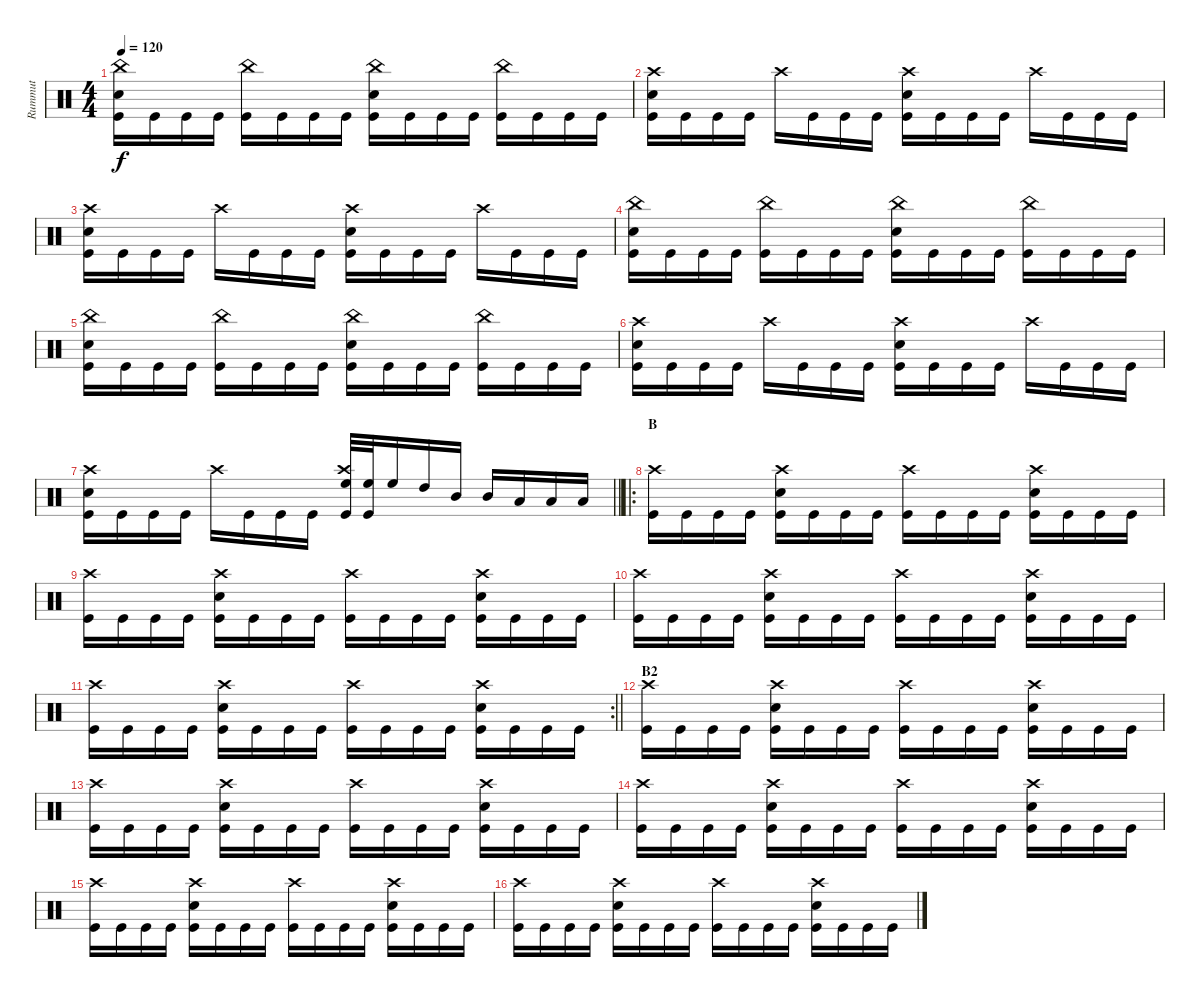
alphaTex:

\track ("Rummut" "Rummut") {instrument percussion}
\staff {score}
\articulation defaults
\ts (4 4)
\tempo 120
\clef neutral
\ks c
("Kick (hit)" "Snare (hit) 2" "China (hit)").16{dy f} "Kick (hit)".16 "Kick (hit)".16 "Kick (hit)".16 ("Kick (hit)" "China (hit)").16 "Kick (hit)".16 "Kick (hit)".16 "Kick (hit)".16 ("Kick (hit)" "Snare (hit) 2" "China (hit)").16 "Kick (hit)".16 "Kick (hit)".16 "Kick (hit)".16 ("Kick (hit)" "China (hit)").16 "Kick (hit)".16 "Kick (hit)".16 "Kick (hit)".16 |
("Crash high (hit)" "Snare (hit) 2" "Kick (hit)").16 "Kick (hit)".16 "Kick (hit)".16 "Kick (hit)".16 "Crash high (hit)".16 "Kick (hit)".16 "Kick (hit)".16 "Kick (hit)".16 ("Crash high (hit)" "Snare (hit) 2" "Kick (hit)").16 "Kick (hit)".16 "Kick (hit)".16 "Kick (hit)".16 "Crash high (hit)".16 "Kick (hit)".16 "Kick (hit)".16 "Kick (hit)".16 |
("Crash high (hit)" "Snare (hit) 2" "Kick (hit)").16 "Kick (hit)".16 "Kick (hit)".16 "Kick (hit)".16 "Crash high (hit)".16 "Kick (hit)".16 "Kick (hit)".16 "Kick (hit)".16 ("Crash high (hit)" "Snare (hit) 2" "Kick (hit)").16 "Kick (hit)".16 "Kick (hit)".16 "Kick (hit)".16 "Crash high (hit)".16 "Kick (hit)".16 "Kick (hit)".16 "Kick (hit)".16 |
("Kick (hit)" "Snare (hit) 2" "China (hit)").16 "Kick (hit)".16 "Kick (hit)".16 "Kick (hit)".16 ("Kick (hit)" "China (hit)").16 "Kick (hit)".16 "Kick (hit)".16 "Kick (hit)".16 ("Kick (hit)" "Snare (hit) 2" "China (hit)").16 "Kick (hit)".16 "Kick (hit)".16 "Kick (hit)".16 ("Kick (hit)" "China (hit)").16 "Kick (hit)".16 "Kick (hit)".16 "Kick (hit)".16 |
("Kick (hit)" "Snare (hit) 2" "China (hit)").16 "Kick (hit)".16 "Kick (hit)".16 "Kick (hit)".16 ("Kick (hit)" "China (hit)").16 "Kick (hit)".16 "Kick (hit)".16 "Kick (hit)".16 ("Kick (hit)" "Snare (hit) 2" "China (hit)").16 "Kick (hit)".16 "Kick (hit)".16 "Kick (hit)".16 ("Kick (hit)" "China (hit)").16 "Kick (hit)".16 "Kick (hit)".16 "Kick (hit)".16 |
("Crash high (hit)" "Snare (hit) 2" "Kick (hit)").16 "Kick (hit)".16 "Kick (hit)".16 "Kick (hit)".16 "Crash high (hit)".16 "Kick (hit)".16 "Kick (hit)".16 "Kick (hit)".16 ("Crash high (hit)" "Snare (hit) 2" "Kick (hit)").16 "Kick (hit)".16 "Kick (hit)".16 "Kick (hit)".16 "Crash high (hit)".16 "Kick (hit)".16 "Kick (hit)".16 "Kick (hit)".16 |
\barLineRight lightlight
("Crash high (hit)" "Snare (hit) 2" "Kick (hit)").16 "Kick (hit)".16 "Kick (hit)".16 "Kick (hit)".16 "Crash high (hit)".16 "Kick (hit)".16 "Kick (hit)".16 "Kick (hit)".16 ("Crash high (hit)" "High Floor Tom (hit)" "Kick (hit)").32 ("High Floor Tom (hit)" "Kick (hit)").32 "High Floor Tom (hit)".16 "High Tom (hit)".16 "Mid Tom (hit)".16 "Mid Tom (hit)".16 "Low Tom (hit)".16 "Low Floor Tom (hit)".16 "Low Floor Tom (hit)".16 |
\ro
\section ("" "B")
("Crash high (hit)" "Kick (hit)").16 "Kick (hit)".16 "Kick (hit)".16 "Kick (hit)".16 ("Crash high (hit)" "Snare (hit) 2" "Kick (hit)").16 "Kick (hit)".16 "Kick (hit)".16 "Kick (hit)".16 ("Crash high (hit)" "Kick (hit)").16 "Kick (hit)".16 "Kick (hit)".16 "Kick (hit)".16 ("Crash high (hit)" "Snare (hit) 2" "Kick (hit)").16 "Kick (hit)".16 "Kick (hit)".16 "Kick (hit)".16 |
("Crash high (hit)" "Kick (hit)").16 "Kick (hit)".16 "Kick (hit)".16 "Kick (hit)".16 ("Crash high (hit)" "Snare (hit) 2" "Kick (hit)").16 "Kick (hit)".16 "Kick (hit)".16 "Kick (hit)".16 ("Crash high (hit)" "Kick (hit)").16 "Kick (hit)".16 "Kick (hit)".16 "Kick (hit)".16 ("Crash high (hit)" "Snare (hit) 2" "Kick (hit)").16 "Kick (hit)".16 "Kick (hit)".16 "Kick (hit)".16 |
("Crash high (hit)" "Kick (hit)").16 "Kick (hit)".16 "Kick (hit)".16 "Kick (hit)".16 ("Crash high (hit)" "Snare (hit) 2" "Kick (hit)").16 "Kick (hit)".16 "Kick (hit)".16 "Kick (hit)".16 ("Crash high (hit)" "Kick (hit)").16 "Kick (hit)".16 "Kick (hit)".16 "Kick (hit)".16 ("Crash high (hit)" "Snare (hit) 2" "Kick (hit)").16 "Kick (hit)".16 "Kick (hit)".16 "Kick (hit)".16 |
\rc 2
\barLineRight lightlight
("Crash high (hit)" "Kick (hit)").16 "Kick (hit)".16 "Kick (hit)".16 "Kick (hit)".16 ("Crash high (hit)" "Snare (hit) 2" "Kick (hit)").16 "Kick (hit)".16 "Kick (hit)".16 "Kick (hit)".16 ("Crash high (hit)" "Kick (hit)").16 "Kick (hit)".16 "Kick (hit)".16 "Kick (hit)".16 ("Crash high (hit)" "Snare (hit) 2" "Kick (hit)").16 "Kick (hit)".16 "Kick (hit)".16 "Kick (hit)".16 |
\section ("" "B2")
("Crash high (hit)" "Kick (hit)").16 "Kick (hit)".16 "Kick (hit)".16 "Kick (hit)".16 ("Crash high (hit)" "Snare (hit) 2" "Kick (hit)").16 "Kick (hit)".16 "Kick (hit)".16 "Kick (hit)".16 ("Crash high (hit)" "Kick (hit)").16 "Kick (hit)".16 "Kick (hit)".16 "Kick (hit)".16 ("Crash high (hit)" "Snare (hit) 2" "Kick (hit)").16 "Kick (hit)".16 "Kick (hit)".16 "Kick (hit)".16 |
("Crash high (hit)" "Kick (hit)").16 "Kick (hit)".16 "Kick (hit)".16 "Kick (hit)".16 ("Crash high (hit)" "Snare (hit) 2" "Kick (hit)").16 "Kick (hit)".16 "Kick (hit)".16 "Kick (hit)".16 ("Crash high (hit)" "Kick (hit)").16 "Kick (hit)".16 "Kick (hit)".16 "Kick (hit)".16 ("Crash high (hit)" "Snare (hit) 2" "Kick (hit)").16 "Kick (hit)".16 "Kick (hit)".16 "Kick (hit)".16 |
("Crash high (hit)" "Kick (hit)").16 "Kick (hit)".16 "Kick (hit)".16 "Kick (hit)".16 ("Crash high (hit)" "Snare (hit) 2" "Kick (hit)").16 "Kick (hit)".16 "Kick (hit)".16 "Kick (hit)".16 ("Crash high (hit)" "Kick (hit)").16 "Kick (hit)".16 "Kick (hit)".16 "Kick (hit)".16 ("Crash high (hit)" "Snare (hit) 2" "Kick (hit)").16 "Kick (hit)".16 "Kick (hit)".16 "Kick (hit)".16 |
("Crash high (hit)" "Kick (hit)").16 "Kick (hit)".16 "Kick (hit)".16 "Kick (hit)".16 ("Crash high (hit)" "Snare (hit) 2" "Kick (hit)").16 "Kick (hit)".16 "Kick (hit)".16 "Kick (hit)".16 ("Crash high (hit)" "Kick (hit)").16 "Kick (hit)".16 "Kick (hit)".16 "Kick (hit)".16 ("Crash high (hit)" "Snare (hit) 2" "Kick (hit)").16 "Kick (hit)".16 "Kick (hit)".16 "Kick (hit)".16 |
("Crash high (hit)" "Kick (hit)").16 "Kick (hit)".16 "Kick (hit)".16 "Kick (hit)".16 ("Crash high (hit)" "Snare (hit) 2" "Kick (hit)").16 "Kick (hit)".16 "Kick (hit)".16 "Kick (hit)".16 ("Crash high (hit)" "Kick (hit)").16 "Kick (hit)".16 "Kick (hit)".16 "Kick (hit)".16 ("Crash high (hit)" "Snare (hit) 2" "Kick (hit)").16 "Kick (hit)".16 "Kick (hit)".16 "Kick (hit)".16
